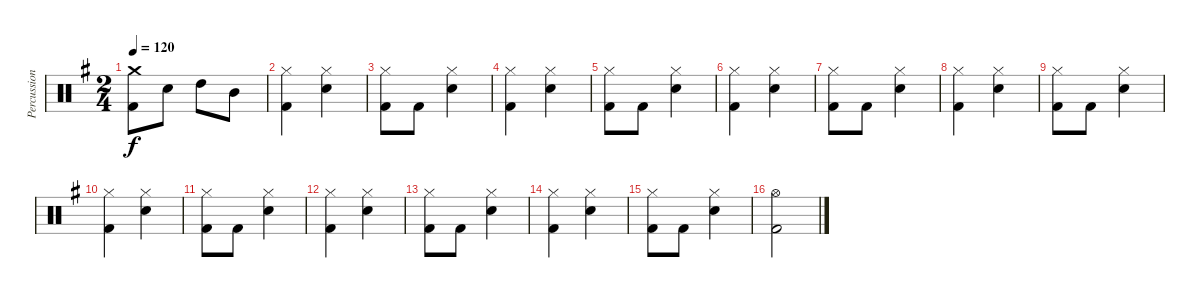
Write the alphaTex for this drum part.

\track ("Percussion" "Percussion") {instrument percussion}
\staff {score}
\articulation defaults
\ts (2 4)
\tempo 120
\clef neutral
\ks g
("Crash medium (hit)" "Kick (hit) 2").8{dy f} "Snare (hit) 2".8 "High Tom (hit)".8 "Mid Tom (hit)".8 |
("Hi-Hat (closed)" "Kick (hit) 2").4 ("Hi-Hat (closed)" "Snare (hit) 2").4 |
("Hi-Hat (closed)" "Kick (hit) 2").8 "Kick (hit) 2".8 ("Hi-Hat (closed)" "Snare (hit) 2").4 |
("Hi-Hat (closed)" "Kick (hit) 2").4 ("Hi-Hat (closed)" "Snare (hit) 2").4 |
("Hi-Hat (closed)" "Kick (hit) 2").8 "Kick (hit) 2".8 ("Hi-Hat (closed)" "Snare (hit) 2").4 |
("Hi-Hat (closed)" "Kick (hit) 2").4 ("Hi-Hat (closed)" "Snare (hit) 2").4 |
("Hi-Hat (closed)" "Kick (hit) 2").8 "Kick (hit) 2".8 ("Hi-Hat (closed)" "Snare (hit) 2").4 |
("Hi-Hat (closed)" "Kick (hit) 2").4 ("Hi-Hat (closed)" "Snare (hit) 2").4 |
("Hi-Hat (closed)" "Kick (hit) 2").8 "Kick (hit) 2".8 ("Hi-Hat (closed)" "Snare (hit) 2").4 |
("Hi-Hat (closed)" "Kick (hit) 2").4 ("Hi-Hat (closed)" "Snare (hit) 2").4 |
("Hi-Hat (closed)" "Kick (hit) 2").8 "Kick (hit) 2".8 ("Hi-Hat (closed)" "Snare (hit) 2").4 |
("Hi-Hat (closed)" "Kick (hit) 2").4 ("Hi-Hat (closed)" "Snare (hit) 2").4 |
("Hi-Hat (closed)" "Kick (hit) 2").8 "Kick (hit) 2".8 ("Hi-Hat (closed)" "Snare (hit) 2").4 |
("Hi-Hat (closed)" "Kick (hit) 2").4 ("Hi-Hat (closed)" "Snare (hit) 2").4 |
("Hi-Hat (closed)" "Kick (hit) 2").8 "Kick (hit) 2".8 ("Hi-Hat (closed)" "Snare (hit) 2").4 |
("Hi-Hat (open)" "Kick (hit) 2").2
